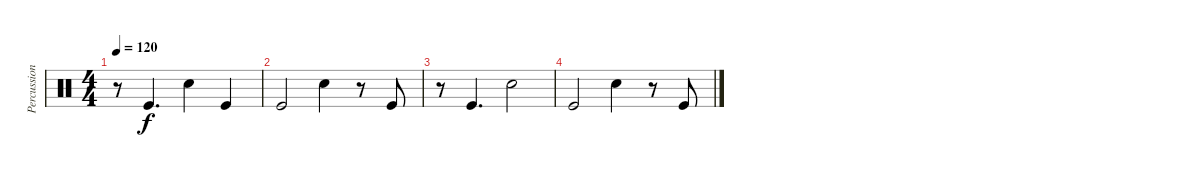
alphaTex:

\track ("Percussion" "Percussion") {instrument percussion}
\staff {score}
\articulation defaults
\ts (4 4)
\tempo 120
\clef neutral
\ks c
r.8{dy f} "Kick (hit)".4{d} "Snare (hit) 2".4 "Kick (hit)".4 |
"Kick (hit)".2 "Snare (hit) 2".4 r.8 "Kick (hit)".8 |
r.8 "Kick (hit)".4{d} "Snare (hit) 2".2 |
"Kick (hit)".2 "Snare (hit) 2".4 r.8 "Kick (hit)".8
